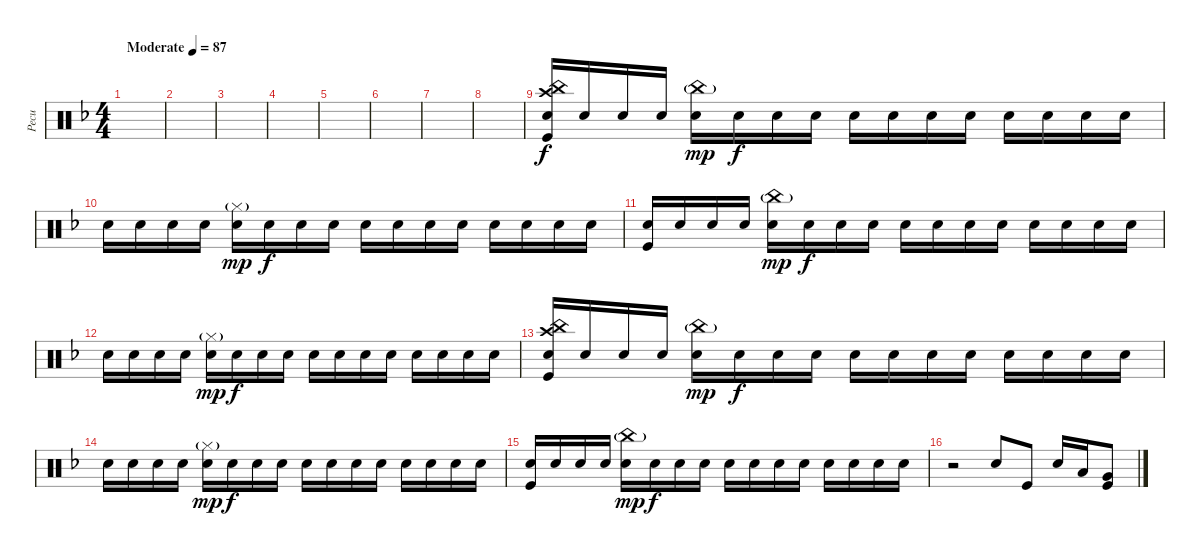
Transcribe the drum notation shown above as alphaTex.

\track ("Pecu" "Pecu") {instrument percussion}
\staff {score}
\articulation defaults
\ts (4 4)
\tempo (87 "Moderate")
\clef neutral
\ks dminor
|
|
|
|
|
|
|
|
("Snare (hit)" "Crash high (hit)" "China (hit)" "Kick (hit)").16 "Snare (hit)".16 "Snare (hit)".16 "Snare (hit)".16 ("Snare (hit)" "China (hit)"{g}).16{dy mp} "Snare (hit)".16{dy f} "Snare (hit)".16 "Snare (hit)".16 "Snare (hit)".16 "Snare (hit)".16 "Snare (hit)".16 "Snare (hit)".16 "Snare (hit)".16 "Snare (hit)".16 "Snare (hit)".16 "Snare (hit)".16 |
"Snare (hit)".16 "Snare (hit)".16 "Snare (hit)".16 "Snare (hit)".16 ("Snare (hit)" "Hi-Hat (closed)"{g}).16{dy mp} "Snare (hit)".16{dy f} "Snare (hit)".16 "Snare (hit)".16 "Snare (hit)".16 "Snare (hit)".16 "Snare (hit)".16 "Snare (hit)".16 "Snare (hit)".16 "Snare (hit)".16 "Snare (hit)".16 "Snare (hit)".16 |
("Snare (hit)" "Kick (hit)").16 "Snare (hit)".16 "Snare (hit)".16 "Snare (hit)".16 ("Snare (hit)" "China (hit)"{g}).16{dy mp} "Snare (hit)".16{dy f} "Snare (hit)".16 "Snare (hit)".16 "Snare (hit)".16 "Snare (hit)".16 "Snare (hit)".16 "Snare (hit)".16 "Snare (hit)".16 "Snare (hit)".16 "Snare (hit)".16 "Snare (hit)".16 |
"Snare (hit)".16 "Snare (hit)".16 "Snare (hit)".16 "Snare (hit)".16 ("Snare (hit)" "Hi-Hat (closed)"{g}).16{dy mp} "Snare (hit)".16{dy f} "Snare (hit)".16 "Snare (hit)".16 "Snare (hit)".16 "Snare (hit)".16 "Snare (hit)".16 "Snare (hit)".16 "Snare (hit)".16 "Snare (hit)".16 "Snare (hit)".16 "Snare (hit)".16 |
("Snare (hit)" "Crash high (hit)" "China (hit)" "Kick (hit)").16 "Snare (hit)".16 "Snare (hit)".16 "Snare (hit)".16 ("Snare (hit)" "China (hit)"{g}).16{dy mp} "Snare (hit)".16{dy f} "Snare (hit)".16 "Snare (hit)".16 "Snare (hit)".16 "Snare (hit)".16 "Snare (hit)".16 "Snare (hit)".16 "Snare (hit)".16 "Snare (hit)".16 "Snare (hit)".16 "Snare (hit)".16 |
"Snare (hit)".16 "Snare (hit)".16 "Snare (hit)".16 "Snare (hit)".16 ("Snare (hit)" "Hi-Hat (closed)"{g}).16{dy mp} "Snare (hit)".16{dy f} "Snare (hit)".16 "Snare (hit)".16 "Snare (hit)".16 "Snare (hit)".16 "Snare (hit)".16 "Snare (hit)".16 "Snare (hit)".16 "Snare (hit)".16 "Snare (hit)".16 "Snare (hit)".16 |
("Snare (hit)" "Kick (hit)").16 "Snare (hit)".16 "Snare (hit)".16 "Snare (hit)".16 ("Snare (hit)" "China (hit)"{g}).16{dy mp} "Snare (hit)".16{dy f} "Snare (hit)".16 "Snare (hit)".16 "Snare (hit)".16 "Snare (hit)".16 "Snare (hit)".16 "Snare (hit)".16 "Snare (hit)".16 "Snare (hit)".16 "Snare (hit)".16 "Snare (hit)".16 |
r.2 "Snare (hit) 2".8 "Kick (hit)".8 "Snare (hit) 2".16 "Low Tom (hit)".16 ("Very Low Tom (hit)" "Kick (hit)").8
